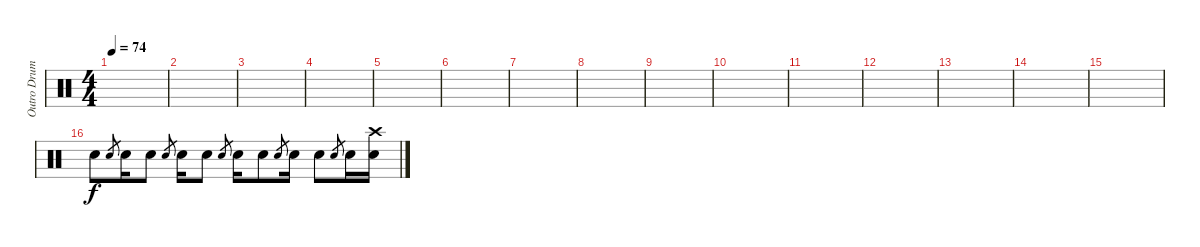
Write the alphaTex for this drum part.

\track ("Outro Drums 2" "Outro Drum") {instrument percussion}
\staff {score}
\articulation defaults
\ts (4 4)
\tempo 74
\clef neutral
\ks c
|
|
|
|
|
|
|
|
|
|
|
|
|
|
|
"Snare (hit) 2".8 "Snare (hit) 2".8{gr} "Snare (hit) 2".16 "Snare (hit) 2".8 "Snare (hit) 2".8{gr} "Snare (hit) 2".16 "Snare (hit) 2".8 "Snare (hit) 2".8{gr} "Snare (hit) 2".16 "Snare (hit) 2".8 "Snare (hit) 2".8{gr} "Snare (hit) 2".16 "Snare (hit) 2".8 "Snare (hit) 2".8{gr} "Snare (hit) 2".16 ("Crash high (hit)" "Electric Snare (hit)").16
